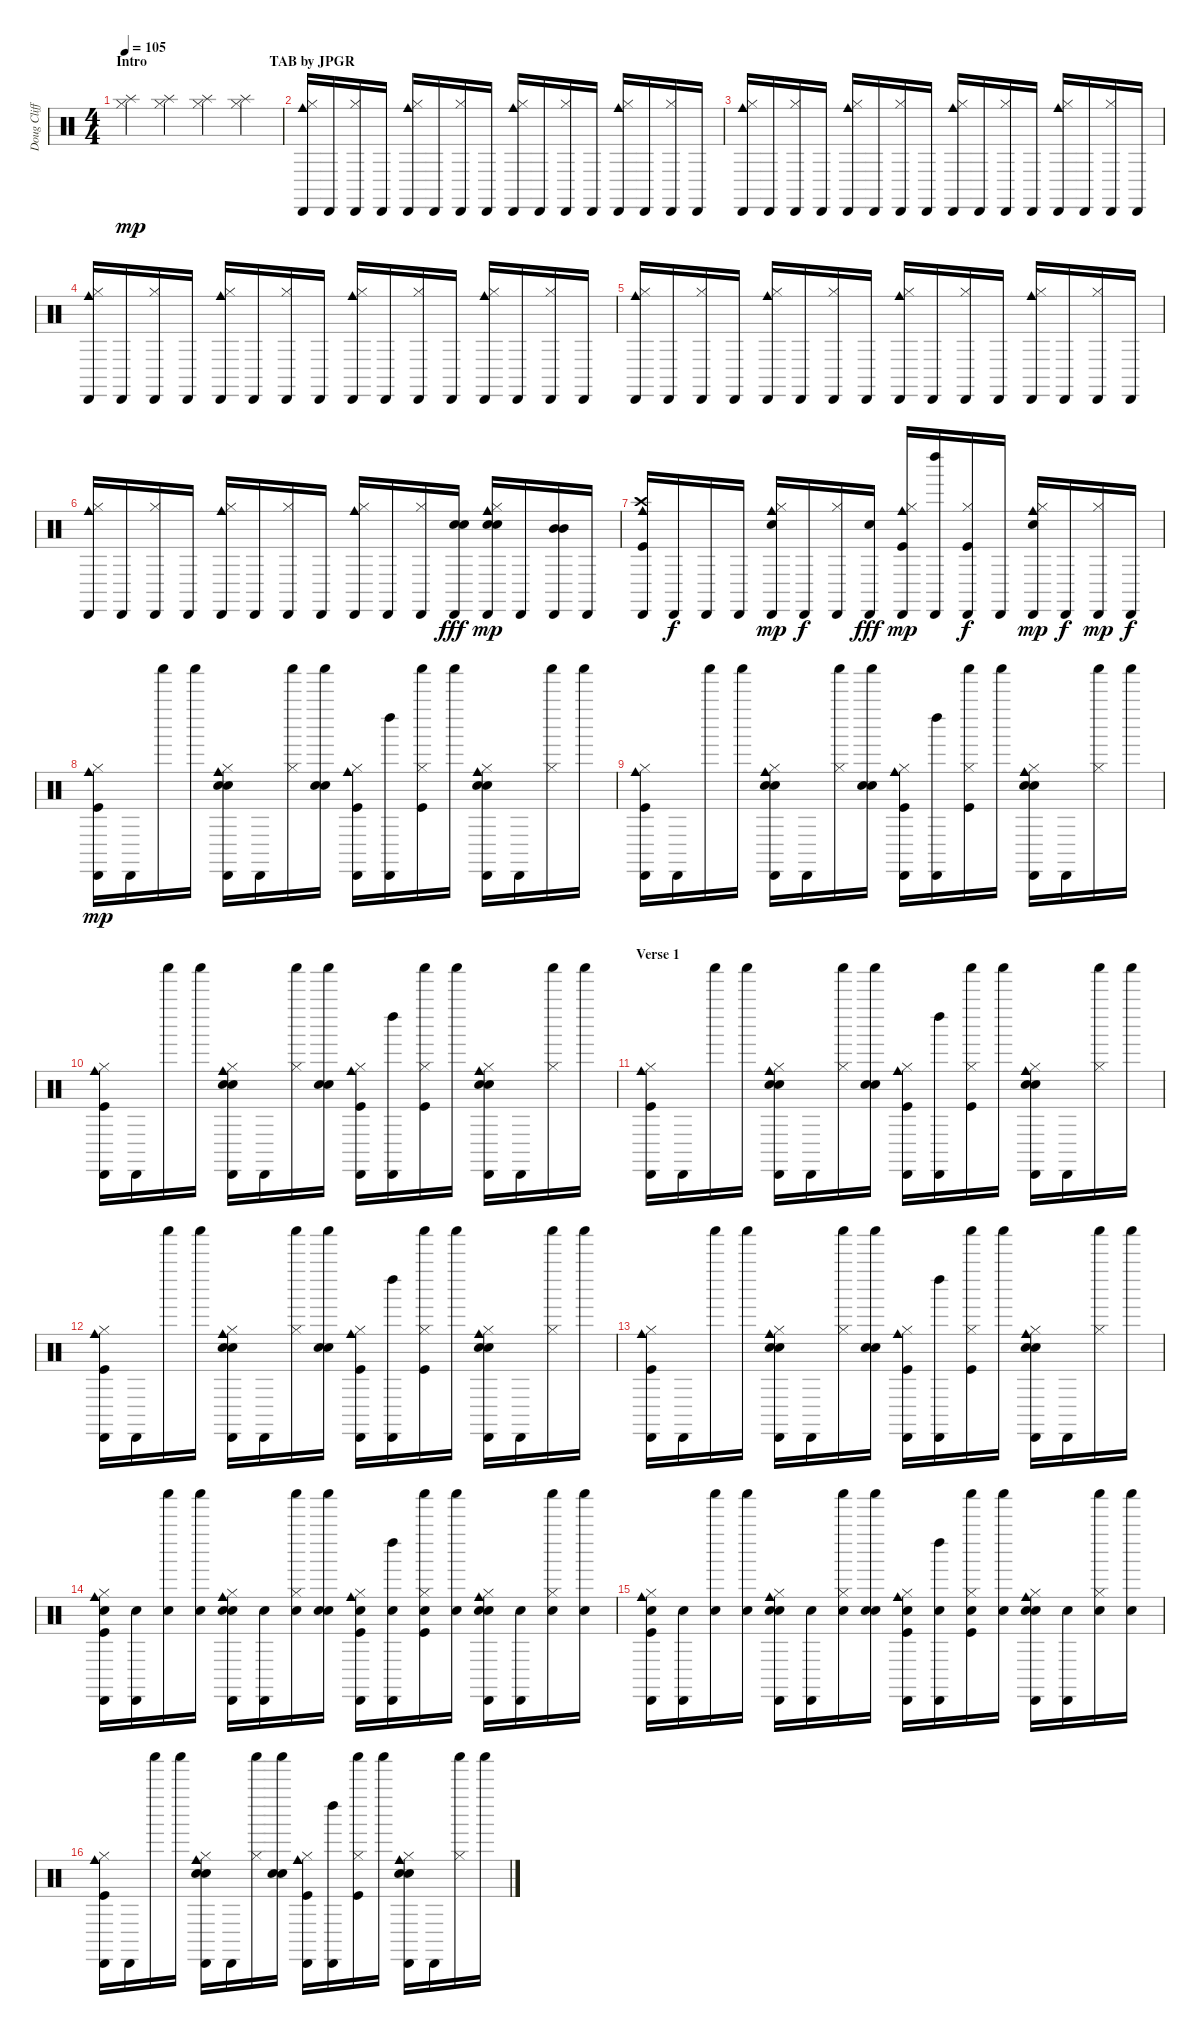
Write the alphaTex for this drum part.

\track ("Doug Clifford" "Doug Cliff") {instrument percussion}
\staff {score}
\articulation defaults
\ts (4 4)
\section ("" "Intro                                   TAB by JPGR")
\tempo 105
\clef neutral
\ks c
("Splash (hit)" "Hi-Hat (closed)").4{dy mp} ("Splash (hit)" "Hi-Hat (closed)").4 ("Splash (hit)" "Hi-Hat (closed)").4 ("Splash (hit)" "Hi-Hat (closed)").4 |
("Cowbell medium (hit)" "Cabasa (hit)" "Hi-Hat (closed)").16 "Cabasa (hit)".16 ("Cabasa (hit)" "Hi-Hat (closed)").16 "Cabasa (hit)".16 ("Cowbell medium (hit)" "Cabasa (hit)" "Hi-Hat (closed)").16 "Cabasa (hit)".16 ("Cabasa (hit)" "Hi-Hat (closed)").16 "Cabasa (hit)".16 ("Cowbell medium (hit)" "Cabasa (hit)" "Hi-Hat (closed)").16 "Cabasa (hit)".16 ("Cabasa (hit)" "Hi-Hat (closed)").16 "Cabasa (hit)".16 ("Cowbell medium (hit)" "Cabasa (hit)" "Hi-Hat (closed)").16 "Cabasa (hit)".16 ("Cabasa (hit)" "Hi-Hat (closed)").16 "Cabasa (hit)".16 |
("Cowbell medium (hit)" "Cabasa (hit)" "Hi-Hat (closed)").16 "Cabasa (hit)".16 ("Cabasa (hit)" "Hi-Hat (closed)").16 "Cabasa (hit)".16 ("Cowbell medium (hit)" "Cabasa (hit)" "Hi-Hat (closed)").16 "Cabasa (hit)".16 ("Cabasa (hit)" "Hi-Hat (closed)").16 "Cabasa (hit)".16 ("Cowbell medium (hit)" "Cabasa (hit)" "Hi-Hat (closed)").16 "Cabasa (hit)".16 ("Cabasa (hit)" "Hi-Hat (closed)").16 "Cabasa (hit)".16 ("Cowbell medium (hit)" "Cabasa (hit)" "Hi-Hat (closed)").16 "Cabasa (hit)".16 ("Cabasa (hit)" "Hi-Hat (closed)").16 "Cabasa (hit)".16 |
("Cowbell medium (hit)" "Cabasa (hit)" "Hi-Hat (closed)").16 "Cabasa (hit)".16 ("Cabasa (hit)" "Hi-Hat (closed)").16 "Cabasa (hit)".16 ("Cowbell medium (hit)" "Cabasa (hit)" "Hi-Hat (closed)").16 "Cabasa (hit)".16 ("Cabasa (hit)" "Hi-Hat (closed)").16 "Cabasa (hit)".16 ("Cowbell medium (hit)" "Cabasa (hit)" "Hi-Hat (closed)").16 "Cabasa (hit)".16 ("Cabasa (hit)" "Hi-Hat (closed)").16 "Cabasa (hit)".16 ("Cowbell medium (hit)" "Cabasa (hit)" "Hi-Hat (closed)").16 "Cabasa (hit)".16 ("Cabasa (hit)" "Hi-Hat (closed)").16 "Cabasa (hit)".16 |
("Cowbell medium (hit)" "Cabasa (hit)" "Hi-Hat (closed)").16 "Cabasa (hit)".16 ("Cabasa (hit)" "Hi-Hat (closed)").16 "Cabasa (hit)".16 ("Cowbell medium (hit)" "Cabasa (hit)" "Hi-Hat (closed)").16 "Cabasa (hit)".16 ("Cabasa (hit)" "Hi-Hat (closed)").16 "Cabasa (hit)".16 ("Cowbell medium (hit)" "Cabasa (hit)" "Hi-Hat (closed)").16 "Cabasa (hit)".16 ("Cabasa (hit)" "Hi-Hat (closed)").16 "Cabasa (hit)".16 ("Cowbell medium (hit)" "Cabasa (hit)" "Hi-Hat (closed)").16 "Cabasa (hit)".16 ("Cabasa (hit)" "Hi-Hat (closed)").16 "Cabasa (hit)".16 |
("Cowbell medium (hit)" "Cabasa (hit)" "Hi-Hat (closed)").16 "Cabasa (hit)".16 ("Cabasa (hit)" "Hi-Hat (closed)").16 "Cabasa (hit)".16 ("Cowbell medium (hit)" "Cabasa (hit)" "Hi-Hat (closed)").16 "Cabasa (hit)".16 ("Cabasa (hit)" "Hi-Hat (closed)").16 "Cabasa (hit)".16 ("Cowbell medium (hit)" "Cabasa (hit)" "Hi-Hat (closed)").16 "Cabasa (hit)".16 ("Cabasa (hit)" "Hi-Hat (closed)").16 ("Cabasa (hit)" "Electric Snare (hit)" "Electric Snare (hit)").16{dy fff} ("Cowbell medium (hit)" "Cabasa (hit)" "Hi-Hat (closed)" "Electric Snare (hit)" "Electric Snare (hit)").16{dy mp} "Cabasa (hit)".16 ("Cabasa (hit)" "Mid Tom (hit)" "Mid Tom (hit)").16 "Cabasa (hit)".16 |
("Cabasa (hit)" "Cowbell medium (hit)" "Crash high (hit)" "Kick (hit)").16 "Cabasa (hit)".16{dy f} "Cabasa (hit)".16 "Cabasa (hit)".16 ("Cabasa (hit)" "Cowbell medium (hit)" "Hi-Hat (closed)" "Snare (hit) 2").16{dy mp} "Cabasa (hit)".16{dy f} ("Cabasa (hit)" "Hi-Hat (closed)").16 ("Cabasa (hit)" "Snare (hit) 2").16{dy fff} ("Cabasa (hit)" "Cowbell medium (hit)" "Hi-Hat (closed)" "Kick (hit)").16{dy mp} ("Cabasa (hit)" "Left Maraca (hit)").16 ("Cabasa (hit)" "Hi-Hat (closed)" "Kick (hit)").16{dy f} "Cabasa (hit)".16 ("Cabasa (hit)" "Cowbell medium (hit)" "Hi-Hat (closed)" "Snare (hit) 2").16{dy mp} "Cabasa (hit)".16{dy f} ("Cabasa (hit)" "Hi-Hat (closed)").16{dy mp} "Cabasa (hit)".16{dy f} |
("Cowbell medium (hit)" "Cabasa (hit)" "Kick (hit)" "Hi-Hat (closed)").16{dy mp} "Cabasa (hit)".16 "Shaker (hit)".16 "Shaker (hit)".16 ("Electric Snare (hit)" "Snare (hit) 2" "Cowbell medium (hit)" "Cabasa (hit)" "Hi-Hat (closed)").16 "Cabasa (hit)".16 ("Shaker (hit)" "Hi-Hat (closed)").16 ("Electric Snare (hit)" "Snare (hit) 2" "Shaker (hit)").16 ("Cabasa (hit)" "Kick (hit)" "Cowbell medium (hit)" "Hi-Hat (closed)").16 ("Left Maraca (hit)" "Cabasa (hit)").16 ("Shaker (hit)" "Kick (hit)" "Hi-Hat (closed)").16 "Shaker (hit)".16 ("Electric Snare (hit)" "Cowbell medium (hit)" "Snare (hit) 2" "Cabasa (hit)" "Hi-Hat (closed)").16 "Cabasa (hit)".16 ("Hi-Hat (closed)" "Shaker (hit)").16 "Shaker (hit)".16 |
("Cowbell medium (hit)" "Cabasa (hit)" "Kick (hit)" "Hi-Hat (closed)").16 "Cabasa (hit)".16 "Shaker (hit)".16 "Shaker (hit)".16 ("Electric Snare (hit)" "Snare (hit) 2" "Cowbell medium (hit)" "Cabasa (hit)" "Hi-Hat (closed)").16 "Cabasa (hit)".16 ("Shaker (hit)" "Hi-Hat (closed)").16 ("Electric Snare (hit)" "Snare (hit) 2" "Shaker (hit)").16 ("Cabasa (hit)" "Kick (hit)" "Cowbell medium (hit)" "Hi-Hat (closed)").16 ("Left Maraca (hit)" "Cabasa (hit)").16 ("Shaker (hit)" "Kick (hit)" "Hi-Hat (closed)").16 "Shaker (hit)".16 ("Electric Snare (hit)" "Cowbell medium (hit)" "Snare (hit) 2" "Cabasa (hit)" "Hi-Hat (closed)").16 "Cabasa (hit)".16 ("Hi-Hat (closed)" "Shaker (hit)").16 "Shaker (hit)".16 |
("Cowbell medium (hit)" "Cabasa (hit)" "Kick (hit)" "Hi-Hat (closed)").16 "Cabasa (hit)".16 "Shaker (hit)".16 "Shaker (hit)".16 ("Electric Snare (hit)" "Snare (hit) 2" "Cowbell medium (hit)" "Cabasa (hit)" "Hi-Hat (closed)").16 "Cabasa (hit)".16 ("Shaker (hit)" "Hi-Hat (closed)").16 ("Electric Snare (hit)" "Snare (hit) 2" "Shaker (hit)").16 ("Cabasa (hit)" "Kick (hit)" "Cowbell medium (hit)" "Hi-Hat (closed)").16 ("Left Maraca (hit)" "Cabasa (hit)").16 ("Shaker (hit)" "Kick (hit)" "Hi-Hat (closed)").16 "Shaker (hit)".16 ("Electric Snare (hit)" "Cowbell medium (hit)" "Snare (hit) 2" "Cabasa (hit)" "Hi-Hat (closed)").16 "Cabasa (hit)".16 ("Hi-Hat (closed)" "Shaker (hit)").16 "Shaker (hit)".16 |
\section ("" "Verse 1")
("Cowbell medium (hit)" "Cabasa (hit)" "Kick (hit)" "Hi-Hat (closed)").16 "Cabasa (hit)".16 "Shaker (hit)".16 "Shaker (hit)".16 ("Electric Snare (hit)" "Snare (hit) 2" "Cowbell medium (hit)" "Cabasa (hit)" "Hi-Hat (closed)").16 "Cabasa (hit)".16 ("Shaker (hit)" "Hi-Hat (closed)").16 ("Electric Snare (hit)" "Snare (hit) 2" "Shaker (hit)").16 ("Cabasa (hit)" "Kick (hit)" "Cowbell medium (hit)" "Hi-Hat (closed)").16 ("Left Maraca (hit)" "Cabasa (hit)").16 ("Shaker (hit)" "Kick (hit)" "Hi-Hat (closed)").16 "Shaker (hit)".16 ("Electric Snare (hit)" "Cowbell medium (hit)" "Snare (hit) 2" "Cabasa (hit)" "Hi-Hat (closed)").16 "Cabasa (hit)".16 ("Hi-Hat (closed)" "Shaker (hit)").16 "Shaker (hit)".16 |
("Cowbell medium (hit)" "Cabasa (hit)" "Kick (hit)" "Hi-Hat (closed)").16 "Cabasa (hit)".16 "Shaker (hit)".16 "Shaker (hit)".16 ("Electric Snare (hit)" "Snare (hit) 2" "Cowbell medium (hit)" "Cabasa (hit)" "Hi-Hat (closed)").16 "Cabasa (hit)".16 ("Shaker (hit)" "Hi-Hat (closed)").16 ("Electric Snare (hit)" "Snare (hit) 2" "Shaker (hit)").16 ("Cabasa (hit)" "Kick (hit)" "Cowbell medium (hit)" "Hi-Hat (closed)").16 ("Left Maraca (hit)" "Cabasa (hit)").16 ("Shaker (hit)" "Kick (hit)" "Hi-Hat (closed)").16 "Shaker (hit)".16 ("Electric Snare (hit)" "Cowbell medium (hit)" "Snare (hit) 2" "Cabasa (hit)" "Hi-Hat (closed)").16 "Cabasa (hit)".16 ("Hi-Hat (closed)" "Shaker (hit)").16 "Shaker (hit)".16 |
("Cowbell medium (hit)" "Cabasa (hit)" "Kick (hit)" "Hi-Hat (closed)").16 "Cabasa (hit)".16 "Shaker (hit)".16 "Shaker (hit)".16 ("Electric Snare (hit)" "Snare (hit) 2" "Cowbell medium (hit)" "Cabasa (hit)" "Hi-Hat (closed)").16 "Cabasa (hit)".16 ("Shaker (hit)" "Hi-Hat (closed)").16 ("Electric Snare (hit)" "Snare (hit) 2" "Shaker (hit)").16 ("Cabasa (hit)" "Kick (hit)" "Cowbell medium (hit)" "Hi-Hat (closed)").16 ("Left Maraca (hit)" "Cabasa (hit)").16 ("Shaker (hit)" "Kick (hit)" "Hi-Hat (closed)").16 "Shaker (hit)".16 ("Electric Snare (hit)" "Cowbell medium (hit)" "Snare (hit) 2" "Cabasa (hit)" "Hi-Hat (closed)").16 "Cabasa (hit)".16 ("Hi-Hat (closed)" "Shaker (hit)").16 "Shaker (hit)".16 |
("Snare (hit)" "Kick (hit)" "Cowbell medium (hit)" "Cabasa (hit)" "Hi-Hat (closed)").16 ("Snare (hit)" "Cabasa (hit)").16 ("Snare (hit)" "Shaker (hit)").16 ("Snare (hit)" "Shaker (hit)").16 ("Snare (hit)" "Cabasa (hit)" "Cowbell medium (hit)" "Electric Snare (hit)" "Hi-Hat (closed)").16 ("Snare (hit)" "Cabasa (hit)").16 ("Snare (hit)" "Shaker (hit)" "Hi-Hat (closed)").16 ("Snare (hit)" "Shaker (hit)" "Electric Snare (hit)").16 ("Snare (hit)" "Kick (hit)" "Cowbell medium (hit)" "Cabasa (hit)" "Hi-Hat (closed)").16 ("Snare (hit)" "Left Maraca (hit)" "Cabasa (hit)").16 ("Snare (hit)" "Kick (hit)" "Hi-Hat (closed)" "Shaker (hit)").16 ("Snare (hit)" "Shaker (hit)").16 ("Snare (hit)" "Cabasa (hit)" "Electric Snare (hit)" "Cowbell medium (hit)" "Hi-Hat (closed)").16 ("Snare (hit)" "Cabasa (hit)").16 ("Snare (hit)" "Hi-Hat (closed)" "Shaker (hit)").16 ("Snare (hit)" "Shaker (hit)").16 |
("Snare (hit)" "Cowbell medium (hit)" "Kick (hit)" "Cabasa (hit)" "Hi-Hat (closed)").16 ("Snare (hit)" "Cabasa (hit)").16 ("Snare (hit)" "Shaker (hit)").16 ("Snare (hit)" "Shaker (hit)").16 ("Snare (hit)" "Cowbell medium (hit)" "Cabasa (hit)" "Electric Snare (hit)" "Hi-Hat (closed)").16 ("Snare (hit)" "Cabasa (hit)").16 ("Snare (hit)" "Shaker (hit)" "Hi-Hat (closed)").16 ("Snare (hit)" "Electric Snare (hit)" "Shaker (hit)").16 ("Snare (hit)" "Cabasa (hit)" "Hi-Hat (closed)" "Kick (hit)" "Cowbell medium (hit)").16 ("Snare (hit)" "Left Maraca (hit)" "Cabasa (hit)").16 ("Snare (hit)" "Kick (hit)" "Hi-Hat (closed)" "Shaker (hit)").16 ("Snare (hit)" "Shaker (hit)").16 ("Snare (hit)" "Cabasa (hit)" "Electric Snare (hit)" "Cowbell medium (hit)" "Hi-Hat (closed)").16 ("Snare (hit)" "Cabasa (hit)").16 ("Snare (hit)" "Hi-Hat (closed)" "Shaker (hit)").16 ("Snare (hit)" "Shaker (hit)").16 |
("Cowbell medium (hit)" "Cabasa (hit)" "Kick (hit)" "Hi-Hat (closed)").16 "Cabasa (hit)".16 "Shaker (hit)".16 "Shaker (hit)".16 ("Electric Snare (hit)" "Snare (hit) 2" "Cowbell medium (hit)" "Cabasa (hit)" "Hi-Hat (closed)").16 "Cabasa (hit)".16 ("Shaker (hit)" "Hi-Hat (closed)").16 ("Electric Snare (hit)" "Snare (hit) 2" "Shaker (hit)").16 ("Cabasa (hit)" "Kick (hit)" "Cowbell medium (hit)" "Hi-Hat (closed)").16 ("Left Maraca (hit)" "Cabasa (hit)").16 ("Shaker (hit)" "Kick (hit)" "Hi-Hat (closed)").16 "Shaker (hit)".16 ("Electric Snare (hit)" "Cowbell medium (hit)" "Snare (hit) 2" "Cabasa (hit)" "Hi-Hat (closed)").16 "Cabasa (hit)".16 ("Hi-Hat (closed)" "Shaker (hit)").16 "Shaker (hit)".16
